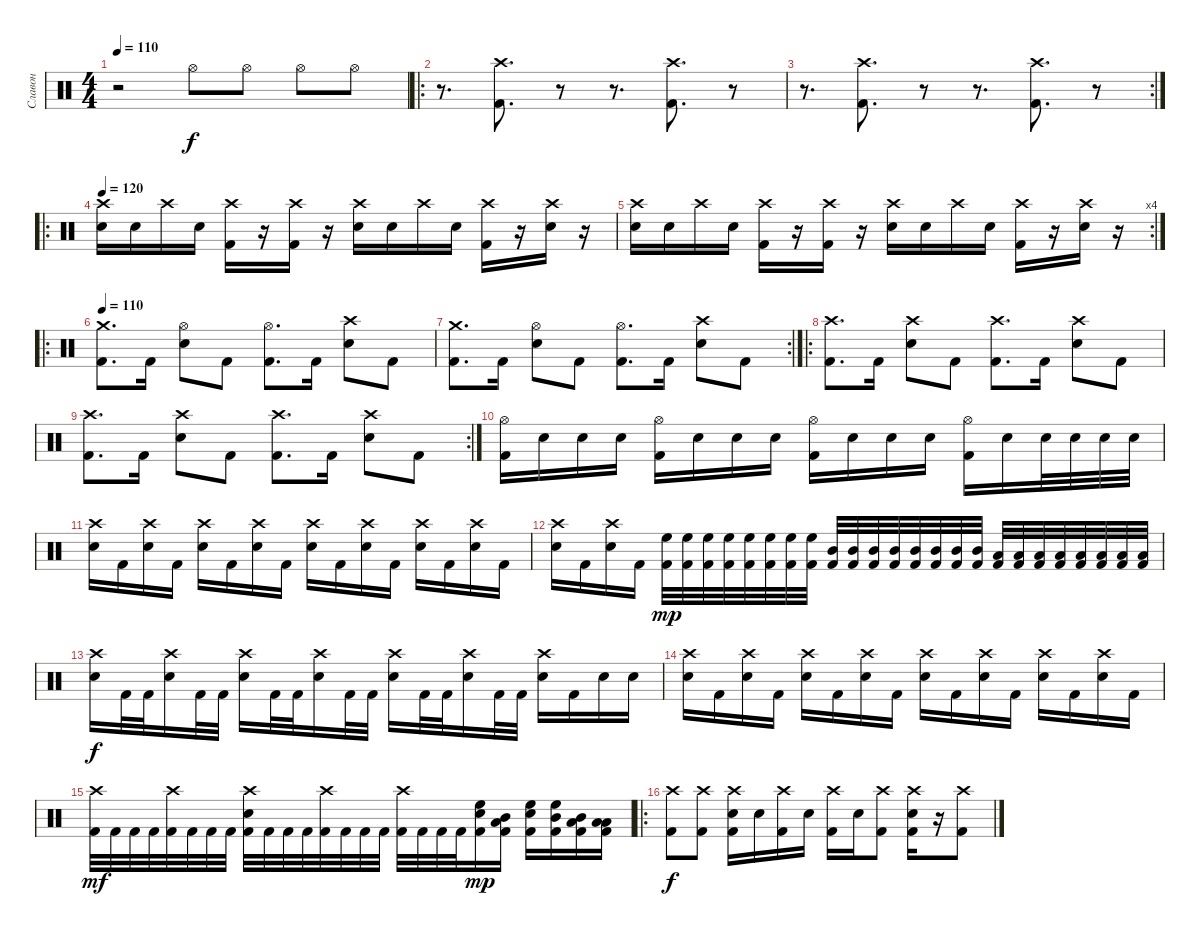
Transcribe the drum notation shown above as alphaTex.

\track ("Славон" "Славон") {instrument percussion}
\staff {score}
\articulation defaults
\ts (4 4)
\tempo 110
\clef neutral
\ks c
r.2{dy f} "Hi-Hat (open)".8 "Hi-Hat (open)".8 "Hi-Hat (open)".8 "Hi-Hat (open)".8 |
\ro
r.8{d} ("Crash high (hit)" "Kick (hit) 2").8{d} r.8 r.8{d} ("Crash high (hit)" "Kick (hit) 2").8{d} r.8 |
\rc 2
r.8{d} ("Crash high (hit)" "Kick (hit) 2").8{d} r.8 r.8{d} ("Crash high (hit)" "Kick (hit) 2").8{d} r.8 |
\ro
\tempo 120
("Crash high (hit)" "Snare (hit) 2").16 "Snare (hit) 2".16 "Crash high (hit)".16 "Snare (hit) 2".16 ("Crash high (hit)" "Kick (hit) 2").16 r.16 ("Crash high (hit)" "Kick (hit) 2").16 r.16 ("Crash high (hit)" "Snare (hit) 2").16 "Snare (hit) 2".16 "Crash high (hit)".16 "Snare (hit) 2".16 ("Crash high (hit)" "Kick (hit) 2").16 r.16 ("Crash high (hit)" "Snare (hit) 2").16 r.16 |
\rc 4
("Crash high (hit)" "Snare (hit) 2").16 "Snare (hit) 2".16 "Crash high (hit)".16 "Snare (hit) 2".16 ("Crash high (hit)" "Kick (hit) 2").16 r.16 ("Crash high (hit)" "Kick (hit) 2").16 r.16 ("Crash high (hit)" "Snare (hit) 2").16 "Snare (hit) 2".16 "Crash high (hit)".16 "Snare (hit) 2".16 ("Crash high (hit)" "Kick (hit) 2").16 r.16 ("Crash high (hit)" "Snare (hit) 2").16 r.16 |
\ro
\tempo 110
("Crash medium (hit)" "Kick (hit) 2").8{d} "Kick (hit) 2".16 ("Hi-Hat (open)" "Snare (hit) 2").8 "Kick (hit) 2".8 ("Hi-Hat (open)" "Kick (hit) 2").8{d} "Kick (hit) 2".16 ("Crash high (hit)" "Snare (hit) 2").8 "Kick (hit) 2".8 |
\rc 2
("Crash medium (hit)" "Kick (hit) 2").8{d} "Kick (hit) 2".16 ("Hi-Hat (open)" "Snare (hit) 2").8 "Kick (hit) 2".8 ("Hi-Hat (open)" "Kick (hit) 2").8{d} "Kick (hit) 2".16 ("Crash high (hit)" "Snare (hit) 2").8 "Kick (hit) 2".8 |
\ro
("Crash high (hit)" "Kick (hit) 2").8{d} "Kick (hit) 2".16 ("Crash high (hit)" "Snare (hit) 2").8 "Kick (hit) 2".8 ("Crash high (hit)" "Kick (hit) 2").8{d} "Kick (hit) 2".16 ("Crash high (hit)" "Snare (hit) 2").8 "Kick (hit) 2".8 |
\rc 2
("Crash high (hit)" "Kick (hit) 2").8{d} "Kick (hit) 2".16 ("Crash high (hit)" "Snare (hit) 2").8 "Kick (hit) 2".8 ("Crash high (hit)" "Kick (hit) 2").8{d} "Kick (hit) 2".16 ("Crash high (hit)" "Snare (hit) 2").8 "Kick (hit) 2".8 |
("Hi-Hat (open)" "Kick (hit) 2").16 "Snare (hit) 2".16 "Snare (hit) 2".16 "Snare (hit) 2".16 ("Hi-Hat (open)" "Kick (hit) 2").16 "Snare (hit) 2".16 "Snare (hit) 2".16 "Snare (hit) 2".16 ("Hi-Hat (open)" "Kick (hit) 2").16 "Snare (hit) 2".16 "Snare (hit) 2".16 "Snare (hit) 2".16 ("Hi-Hat (open)" "Kick (hit) 2").16 "Snare (hit) 2".16 "Snare (hit) 2".32 "Snare (hit) 2".32 "Snare (hit) 2".32 "Snare (hit) 2".32 |
("Crash high (hit)" "Snare (hit) 2").16 "Kick (hit) 2".16 ("Crash high (hit)" "Snare (hit) 2").16 "Kick (hit) 2".16 ("Crash high (hit)" "Snare (hit) 2").16 "Kick (hit) 2".16 ("Crash high (hit)" "Snare (hit) 2").16 "Kick (hit) 2".16 ("Crash high (hit)" "Snare (hit) 2").16 "Kick (hit) 2".16 ("Crash high (hit)" "Snare (hit) 2").16 "Kick (hit) 2".16 ("Crash high (hit)" "Snare (hit) 2").16 "Kick (hit) 2".16 ("Crash high (hit)" "Snare (hit) 2").16 "Kick (hit) 2".16 |
("Crash high (hit)" "Snare (hit) 2").16 "Kick (hit) 2".16 ("Crash high (hit)" "Snare (hit) 2").16 "Kick (hit) 2".16 ("High Floor Tom (hit)" "Kick (hit) 2").32{dy mp} ("High Floor Tom (hit)" "Kick (hit) 2").32 ("High Floor Tom (hit)" "Kick (hit) 2").32 ("High Floor Tom (hit)" "Kick (hit) 2").32 ("High Floor Tom (hit)" "Kick (hit) 2").32 ("High Floor Tom (hit)" "Kick (hit) 2").32 ("High Floor Tom (hit)" "Kick (hit) 2").32 ("High Floor Tom (hit)" "Kick (hit) 2").32 ("Mid Tom (hit)" "Kick (hit) 2").32 ("Mid Tom (hit)" "Kick (hit) 2").32 ("Mid Tom (hit)" "Kick (hit) 2").32 ("Mid Tom (hit)" "Kick (hit) 2").32 ("Mid Tom (hit)" "Kick (hit) 2").32 ("Mid Tom (hit)" "Kick (hit) 2").32 ("Mid Tom (hit)" "Kick (hit) 2").32 ("Mid Tom (hit)" "Kick (hit) 2").32 ("Low Tom (hit)" "Kick (hit) 2").32 ("Low Tom (hit)" "Kick (hit) 2").32 ("Low Tom (hit)" "Kick (hit) 2").32 ("Low Tom (hit)" "Kick (hit) 2").32 ("Low Tom (hit)" "Kick (hit) 2").32 ("Low Tom (hit)" "Kick (hit) 2").32 ("Low Tom (hit)" "Kick (hit) 2").32 ("Low Tom (hit)" "Kick (hit) 2").32 |
("Crash high (hit)" "Snare (hit) 2").16{dy f} "Kick (hit) 2".32 "Kick (hit) 2".32 ("Crash high (hit)" "Snare (hit) 2").16 "Kick (hit) 2".32 "Kick (hit) 2".32 ("Crash high (hit)" "Snare (hit) 2").16 "Kick (hit) 2".32 "Kick (hit) 2".32 ("Crash high (hit)" "Snare (hit) 2").16 "Kick (hit) 2".32 "Kick (hit) 2".32 ("Crash high (hit)" "Snare (hit) 2").16 "Kick (hit) 2".32 "Kick (hit) 2".32 ("Crash high (hit)" "Snare (hit) 2").16 "Kick (hit) 2".32 "Kick (hit) 2".32 ("Crash high (hit)" "Snare (hit) 2").16 "Kick (hit) 2".16 "Snare (hit) 2".16 "Snare (hit) 2".16 |
("Crash high (hit)" "Snare (hit) 2").16 "Kick (hit) 2".16 ("Crash high (hit)" "Snare (hit) 2").16 "Kick (hit) 2".16 ("Crash high (hit)" "Snare (hit) 2").16 "Kick (hit) 2".16 ("Crash high (hit)" "Snare (hit) 2").16 "Kick (hit) 2".16 ("Crash high (hit)" "Snare (hit) 2").16 "Kick (hit) 2".16 ("Crash high (hit)" "Snare (hit) 2").16 "Kick (hit) 2".16 ("Crash high (hit)" "Snare (hit) 2").16 "Kick (hit) 2".16 ("Crash high (hit)" "Snare (hit) 2").16 "Kick (hit) 2".16 |
("Crash high (hit)" "Kick (hit) 2").32{dy mf} "Kick (hit) 2".32 "Kick (hit) 2".32 "Kick (hit) 2".32 ("Crash high (hit)" "Kick (hit) 2").32 "Kick (hit) 2".32 "Kick (hit) 2".32 "Kick (hit) 2".32 ("Crash high (hit)" "Kick (hit) 2" "Snare (hit) 2").32 "Kick (hit) 2".32 "Kick (hit) 2".32 "Kick (hit) 2".32 ("Crash high (hit)" "Kick (hit) 2").32 "Kick (hit) 2".32 "Kick (hit) 2".32 "Kick (hit) 2".32 ("Crash high (hit)" "Kick (hit) 2").32 "Kick (hit) 2".32 "Kick (hit) 2".32 "Kick (hit) 2".32 ("High Floor Tom (hit)" "Snare (hit) 2" "Kick (hit) 2").16{dy mp} ("Low Tom (hit)" "Mid Tom (hit)" "Kick (hit) 2").16 ("High Floor Tom (hit)" "Snare (hit) 2" "Kick (hit) 2").16 ("Mid Tom (hit)" "High Floor Tom (hit)" "Kick (hit) 2").16 ("Low Tom (hit)" "Mid Tom (hit)" "Kick (hit) 2").16 ("Low Floor Tom (hit)" "Low Tom (hit)" "Kick (hit) 2").16 |
\ro
("Crash high (hit)" "Kick (hit) 2").8{dy f} ("Crash high (hit)" "Kick (hit) 2").8 ("Crash high (hit)" "Snare (hit) 2" "Kick (hit) 2").16 "Snare (hit) 2".16 ("Crash high (hit)" "Kick (hit) 2").16 "Snare (hit) 2".16 ("Crash high (hit)" "Kick (hit) 2").16 "Snare (hit) 2".16 ("Crash high (hit)" "Kick (hit) 2").8 ("Crash high (hit)" "Snare (hit) 2" "Kick (hit) 2").16 r.16 ("Crash high (hit)" "Kick (hit) 2").8
